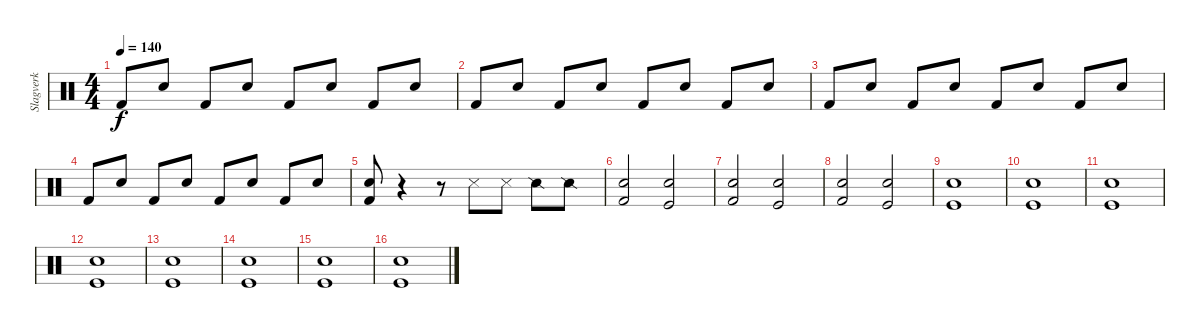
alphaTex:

\track ("Slagverk" "Slagverk") {instrument percussion}
\staff {score}
\articulation defaults
\ts (4 4)
\tempo 140
\clef neutral
\ks c "Kick (hit) 2".8{dy f} "Snare (hit) 2".8 "Kick (hit) 2".8 "Snare (hit) 2".8 "Kick (hit) 2".8 "Snare (hit) 2".8 "Kick (hit) 2".8 "Snare (hit) 2".8
|
"Kick (hit) 2".8 "Snare (hit) 2".8 "Kick (hit) 2".8 "Snare (hit) 2".8 "Kick (hit) 2".8 "Snare (hit) 2".8 "Kick (hit) 2".8 "Snare (hit) 2".8 |
"Kick (hit) 2".8 "Snare (hit) 2".8 "Kick (hit) 2".8 "Snare (hit) 2".8 "Kick (hit) 2".8 "Snare (hit) 2".8 "Kick (hit) 2".8 "Snare (hit) 2".8 |
"Kick (hit) 2".8 "Snare (hit) 2".8 "Kick (hit) 2".8 "Snare (hit) 2".8 "Kick (hit) 2".8 "Snare (hit) 2".8 "Kick (hit) 2".8 "Snare (hit) 2".8 |
("Snare (hit) 2" "Kick (hit) 2").8 r.4 r.8 "Snare (side stick) 3".8 "Snare (side stick) 3".8 "Snare (side stick) 2".8 "Snare (side stick) 2".8 |
("Kick (hit) 2" "Snare (hit) 2").2 ("Kick (hit)" "Snare (hit) 2").2 |
("Snare (hit) 2" "Kick (hit) 2").2 ("Kick (hit)" "Snare (hit) 2").2 |
("Snare (hit) 2" "Kick (hit) 2").2 ("Kick (hit)" "Snare (hit) 2").2 |
("Kick (hit)" "Snare (hit) 2").1 |
("Kick (hit)" "Snare (hit) 2").1 |
("Kick (hit)" "Snare (hit) 2").1 |
("Kick (hit)" "Snare (hit) 2").1 |
("Kick (hit)" "Snare (hit) 2").1 |
("Kick (hit)" "Snare (hit) 2").1 |
("Kick (hit)" "Snare (hit) 2").1 |
("Kick (hit)" "Snare (hit) 2").1
